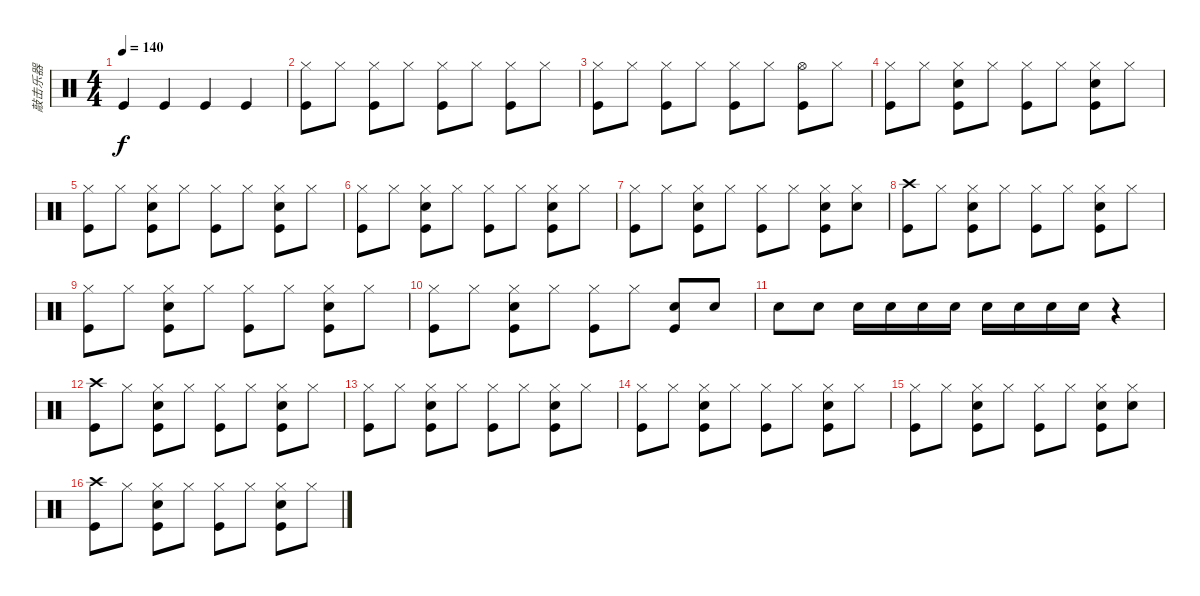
\track ("敲击乐器" "敲击乐器") {instrument percussion}
\staff {score}
\articulation defaults
\ts (4 4)
\tempo 140
\clef neutral
\ks c "Kick (hit)".4{dy f} "Kick (hit)".4 "Kick (hit)".4 "Kick (hit)".4
|
("Hi-Hat (closed)" "Kick (hit)").8 "Hi-Hat (closed)".8 ("Hi-Hat (closed)" "Kick (hit)").8 "Hi-Hat (closed)".8 ("Hi-Hat (closed)" "Kick (hit)").8 "Hi-Hat (closed)".8 ("Hi-Hat (closed)" "Kick (hit)").8 "Hi-Hat (closed)".8 |
("Hi-Hat (closed)" "Kick (hit)").8 "Hi-Hat (closed)".8 ("Hi-Hat (closed)" "Kick (hit)").8 "Hi-Hat (closed)".8 ("Hi-Hat (closed)" "Kick (hit)").8 "Hi-Hat (closed)".8 ("Hi-Hat (open)" "Kick (hit)").8 "Hi-Hat (closed)".8 |
("Hi-Hat (closed)" "Kick (hit)").8 "Hi-Hat (closed)".8 ("Hi-Hat (closed)" "Electric Snare (hit)" "Kick (hit)").8 "Hi-Hat (closed)".8 ("Hi-Hat (closed)" "Kick (hit)").8 "Hi-Hat (closed)".8 ("Hi-Hat (closed)" "Electric Snare (hit)" "Kick (hit)").8 "Hi-Hat (closed)".8 |
("Hi-Hat (closed)" "Kick (hit)").8 "Hi-Hat (closed)".8 ("Hi-Hat (closed)" "Electric Snare (hit)" "Kick (hit)").8 "Hi-Hat (closed)".8 ("Hi-Hat (closed)" "Kick (hit)").8 "Hi-Hat (closed)".8 ("Hi-Hat (closed)" "Electric Snare (hit)" "Kick (hit)").8 "Hi-Hat (closed)".8 |
("Hi-Hat (closed)" "Kick (hit)").8 "Hi-Hat (closed)".8 ("Hi-Hat (closed)" "Electric Snare (hit)" "Kick (hit)").8 "Hi-Hat (closed)".8 ("Hi-Hat (closed)" "Kick (hit)").8 "Hi-Hat (closed)".8 ("Hi-Hat (closed)" "Electric Snare (hit)" "Kick (hit)").8 "Hi-Hat (closed)".8 |
("Hi-Hat (closed)" "Kick (hit)").8 "Hi-Hat (closed)".8 ("Hi-Hat (closed)" "Electric Snare (hit)" "Kick (hit)").8 "Hi-Hat (closed)".8 ("Hi-Hat (closed)" "Kick (hit)").8 "Hi-Hat (closed)".8 ("Hi-Hat (closed)" "Electric Snare (hit)" "Kick (hit)").8 ("Hi-Hat (closed)" "Electric Snare (hit)").8 |
("Crash high (hit)" "Kick (hit)").8 "Hi-Hat (closed)".8 ("Hi-Hat (closed)" "Electric Snare (hit)" "Kick (hit)").8 "Hi-Hat (closed)".8 ("Hi-Hat (closed)" "Kick (hit)").8 "Hi-Hat (closed)".8 ("Hi-Hat (closed)" "Electric Snare (hit)" "Kick (hit)").8 "Hi-Hat (closed)".8 |
("Hi-Hat (closed)" "Kick (hit)").8 "Hi-Hat (closed)".8 ("Hi-Hat (closed)" "Electric Snare (hit)" "Kick (hit)").8 "Hi-Hat (closed)".8 ("Hi-Hat (closed)" "Kick (hit)").8 "Hi-Hat (closed)".8 ("Hi-Hat (closed)" "Electric Snare (hit)" "Kick (hit)").8 "Hi-Hat (closed)".8 |
("Hi-Hat (closed)" "Kick (hit)").8 "Hi-Hat (closed)".8 ("Hi-Hat (closed)" "Electric Snare (hit)" "Kick (hit)").8 "Hi-Hat (closed)".8 ("Hi-Hat (closed)" "Kick (hit)").8 "Hi-Hat (closed)".8 ("Electric Snare (hit)" "Kick (hit)").8 "Electric Snare (hit)".8 |
"Electric Snare (hit)".8 "Electric Snare (hit)".8 "Electric Snare (hit)".16 "Electric Snare (hit)".16 "Electric Snare (hit)".16 "Electric Snare (hit)".16 "Electric Snare (hit)".16 "Electric Snare (hit)".16 "Electric Snare (hit)".16 "Electric Snare (hit)".16 r.4 |
("Crash high (hit)" "Kick (hit)").8 "Hi-Hat (closed)".8 ("Hi-Hat (closed)" "Electric Snare (hit)" "Kick (hit)").8 "Hi-Hat (closed)".8 ("Hi-Hat (closed)" "Kick (hit)").8 "Hi-Hat (closed)".8 ("Hi-Hat (closed)" "Electric Snare (hit)" "Kick (hit)").8 "Hi-Hat (closed)".8 |
("Hi-Hat (closed)" "Kick (hit)").8 "Hi-Hat (closed)".8 ("Hi-Hat (closed)" "Electric Snare (hit)" "Kick (hit)").8 "Hi-Hat (closed)".8 ("Hi-Hat (closed)" "Kick (hit)").8 "Hi-Hat (closed)".8 ("Hi-Hat (closed)" "Electric Snare (hit)" "Kick (hit)").8 "Hi-Hat (closed)".8 |
("Hi-Hat (closed)" "Kick (hit)").8 "Hi-Hat (closed)".8 ("Hi-Hat (closed)" "Electric Snare (hit)" "Kick (hit)").8 "Hi-Hat (closed)".8 ("Hi-Hat (closed)" "Kick (hit)").8 "Hi-Hat (closed)".8 ("Hi-Hat (closed)" "Electric Snare (hit)" "Kick (hit)").8 "Hi-Hat (closed)".8 |
("Hi-Hat (closed)" "Kick (hit)").8 "Hi-Hat (closed)".8 ("Hi-Hat (closed)" "Electric Snare (hit)" "Kick (hit)").8 "Hi-Hat (closed)".8 ("Hi-Hat (closed)" "Kick (hit)").8 "Hi-Hat (closed)".8 ("Hi-Hat (closed)" "Electric Snare (hit)" "Kick (hit)").8 ("Hi-Hat (closed)" "Electric Snare (hit)").8 |
("Crash high (hit)" "Kick (hit)").8 "Hi-Hat (closed)".8 ("Hi-Hat (closed)" "Electric Snare (hit)" "Kick (hit)").8 "Hi-Hat (closed)".8 ("Hi-Hat (closed)" "Kick (hit)").8 "Hi-Hat (closed)".8 ("Hi-Hat (closed)" "Electric Snare (hit)" "Kick (hit)").8 "Hi-Hat (closed)".8
